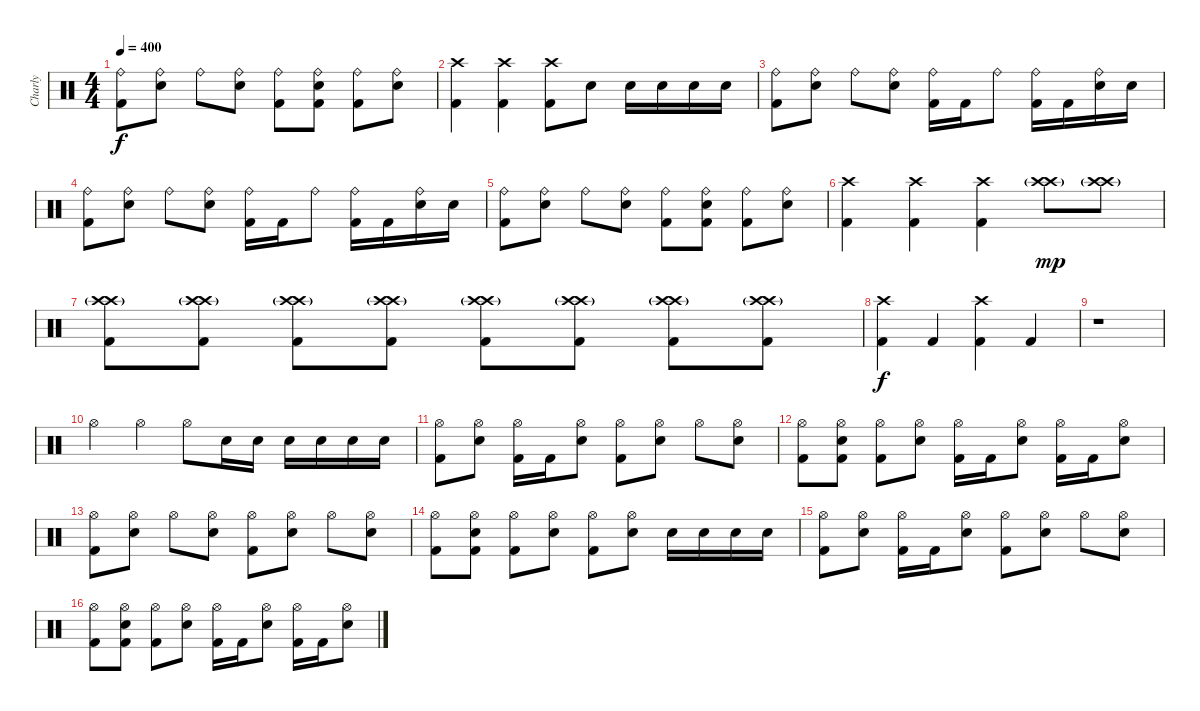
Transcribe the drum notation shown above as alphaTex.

\track ("Charly" "Charly") {instrument percussion}
\staff {score}
\articulation defaults
\ts (4 4)
\tempo 400
\clef neutral
\ks c
("Ride (bell)" "Kick (hit) 2").8{dy f} ("Ride (bell)" "Electric Snare (hit)").8 "Ride (bell)".8 ("Ride (bell)" "Electric Snare (hit)").8 ("Ride (bell)" "Kick (hit) 2").8 ("Ride (bell)" "Electric Snare (hit)" "Kick (hit) 2").8 ("Ride (bell)" "Kick (hit) 2").8 ("Ride (bell)" "Electric Snare (hit)").8 |
("Crash high (hit)" "Kick (hit) 2").4 ("Crash high (hit)" "Kick (hit) 2").4 ("Crash high (hit)" "Kick (hit) 2").8 "Electric Snare (hit)".8 "Electric Snare (hit)".16 "Electric Snare (hit)".16 "Electric Snare (hit)".16 "Electric Snare (hit)".16 |
("Ride (bell)" "Kick (hit) 2").8 ("Ride (bell)" "Electric Snare (hit)").8 "Ride (bell)".8 ("Ride (bell)" "Electric Snare (hit)").8 ("Ride (bell)" "Kick (hit) 2").16 "Kick (hit) 2".16 "Ride (bell)".8 ("Ride (bell)" "Kick (hit) 2").16 "Kick (hit) 2".16 ("Ride (bell)" "Electric Snare (hit)").16 "Electric Snare (hit)".16 |
("Ride (bell)" "Kick (hit) 2").8 ("Ride (bell)" "Electric Snare (hit)").8 "Ride (bell)".8 ("Ride (bell)" "Electric Snare (hit)").8 ("Ride (bell)" "Kick (hit) 2").16 "Kick (hit) 2".16 "Ride (bell)".8 ("Ride (bell)" "Kick (hit) 2").16 "Kick (hit) 2".16 ("Ride (bell)" "Electric Snare (hit)").16 "Electric Snare (hit)".16 |
("Ride (bell)" "Kick (hit) 2").8 ("Ride (bell)" "Electric Snare (hit)").8 "Ride (bell)".8 ("Ride (bell)" "Electric Snare (hit)").8 ("Ride (bell)" "Kick (hit) 2").8 ("Ride (bell)" "Electric Snare (hit)" "Kick (hit) 2").8 ("Ride (bell)" "Kick (hit) 2").8 ("Ride (bell)" "Electric Snare (hit)").8 |
("Crash high (hit)" "Kick (hit) 2").4 ("Crash high (hit)" "Kick (hit) 2").4 ("Crash high (hit)" "Kick (hit) 2").4 ("Crash high (hit)"{g} "Crash high (hit)"{g}).8{dy mp} ("Crash high (hit)"{g} "Crash high (hit)"{g}).8 |
("Crash high (hit)"{g} "Crash high (hit)"{g} "Kick (hit) 2").8 ("Crash high (hit)"{g} "Crash high (hit)"{g} "Kick (hit) 2").8 ("Crash high (hit)"{g} "Crash high (hit)"{g} "Kick (hit) 2").8 ("Crash high (hit)"{g} "Crash high (hit)"{g} "Kick (hit) 2").8 ("Crash high (hit)"{g} "Crash high (hit)"{g} "Kick (hit) 2").8 ("Crash high (hit)"{g} "Crash high (hit)"{g} "Kick (hit) 2").8 ("Crash high (hit)"{g} "Crash high (hit)"{g} "Kick (hit) 2").8 ("Crash high (hit)"{g} "Crash high (hit)"{g} "Kick (hit) 2").8 |
("Crash high (hit)" "Kick (hit) 2").4{dy f} "Kick (hit) 2".4 ("Crash high (hit)" "Kick (hit) 2").4 "Kick (hit) 2".4 |
r.1 |
"Hi-Hat (open)".4 "Hi-Hat (open)".4 "Hi-Hat (open)".8 "Electric Snare (hit)".16 "Electric Snare (hit)".16 "Electric Snare (hit)".16 "Electric Snare (hit)".16 "Electric Snare (hit)".16 "Electric Snare (hit)".16 |
("Hi-Hat (open)" "Kick (hit) 2").8 ("Hi-Hat (open)" "Electric Snare (hit)").8 ("Hi-Hat (open)" "Kick (hit) 2").16 "Kick (hit) 2".16 ("Hi-Hat (open)" "Electric Snare (hit)").8 ("Hi-Hat (open)" "Kick (hit) 2").8 ("Hi-Hat (open)" "Electric Snare (hit)").8 "Hi-Hat (open)".8 ("Hi-Hat (open)" "Electric Snare (hit)").8 |
("Hi-Hat (open)" "Kick (hit) 2").8 ("Hi-Hat (open)" "Electric Snare (hit)" "Kick (hit) 2").8 ("Hi-Hat (open)" "Kick (hit) 2").8 ("Hi-Hat (open)" "Electric Snare (hit)").8 ("Hi-Hat (open)" "Kick (hit) 2").16 "Kick (hit) 2".16 ("Hi-Hat (open)" "Electric Snare (hit)").8 ("Hi-Hat (open)" "Kick (hit) 2").16 "Kick (hit) 2".16 ("Hi-Hat (open)" "Electric Snare (hit)").8 |
("Hi-Hat (open)" "Kick (hit) 2").8 ("Hi-Hat (open)" "Electric Snare (hit)").8 "Hi-Hat (open)".8 ("Hi-Hat (open)" "Electric Snare (hit)").8 ("Hi-Hat (open)" "Kick (hit) 2").8 ("Hi-Hat (open)" "Electric Snare (hit)").8 "Hi-Hat (open)".8 ("Hi-Hat (open)" "Electric Snare (hit)").8 |
("Hi-Hat (open)" "Kick (hit) 2").8 ("Hi-Hat (open)" "Electric Snare (hit)" "Kick (hit) 2").8 ("Hi-Hat (open)" "Kick (hit) 2").8 ("Hi-Hat (open)" "Electric Snare (hit)").8 ("Hi-Hat (open)" "Kick (hit) 2").8 ("Hi-Hat (open)" "Electric Snare (hit)").8 "Electric Snare (hit)".16 "Electric Snare (hit)".16 "Electric Snare (hit)".16 "Electric Snare (hit)".16 |
("Hi-Hat (open)" "Kick (hit) 2").8 ("Hi-Hat (open)" "Electric Snare (hit)").8 ("Hi-Hat (open)" "Kick (hit) 2").16 "Kick (hit) 2".16 ("Hi-Hat (open)" "Electric Snare (hit)").8 ("Hi-Hat (open)" "Kick (hit) 2").8 ("Hi-Hat (open)" "Electric Snare (hit)").8 "Hi-Hat (open)".8 ("Hi-Hat (open)" "Electric Snare (hit)").8 |
("Hi-Hat (open)" "Kick (hit) 2").8 ("Hi-Hat (open)" "Electric Snare (hit)" "Kick (hit) 2").8 ("Hi-Hat (open)" "Kick (hit) 2").8 ("Hi-Hat (open)" "Electric Snare (hit)").8 ("Hi-Hat (open)" "Kick (hit) 2").16 "Kick (hit) 2".16 ("Hi-Hat (open)" "Electric Snare (hit)").8 ("Hi-Hat (open)" "Kick (hit) 2").16 "Kick (hit) 2".16 ("Hi-Hat (open)" "Electric Snare (hit)").8
